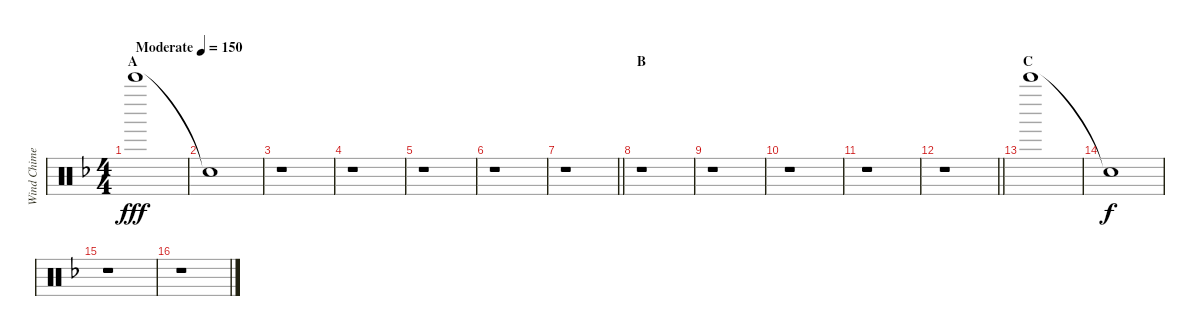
\track ("Wind Chime" "Wind Chime") {instrument percussion}
\staff {score}
\articulation defaults
\ts (4 4)
\section ("" "A")
\tempo (150 "Moderate")
\clef neutral
\ks f "Bell Tree (hit)".1{dy fff}
|
"Snare (hit)"{t}.1 |
r.1 |
r.1 |
r.1 |
r.1 |
\barLineRight lightlight
r.1 |
\section ("" "B")
r.1 |
r.1 |
r.1 |
r.1 |
\barLineRight lightlight
r.1 |
\section ("" "C")
"Bell Tree (hit)".1 |
"Snare (hit)"{t}.1{dy f} |
r.1 |
r.1
